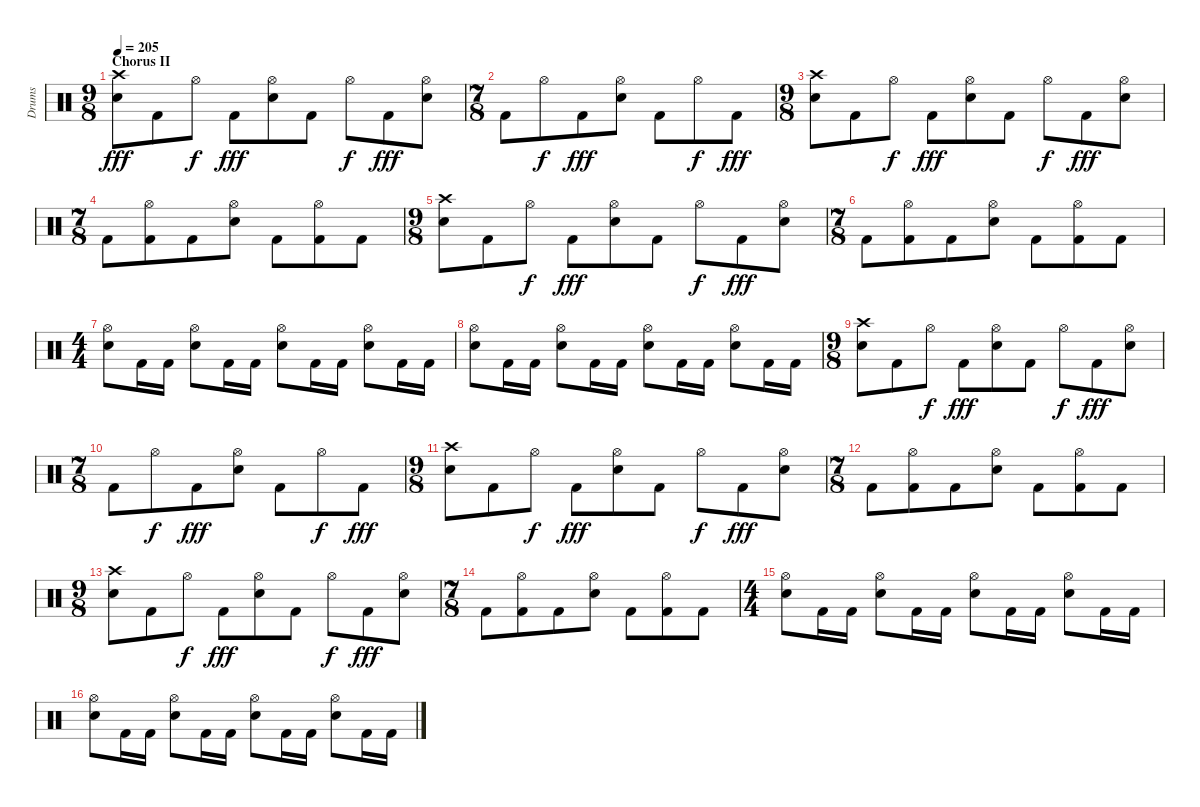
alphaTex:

\track ("Drums" "Drums") {instrument percussion}
\staff {score}
\articulation defaults
\ts (9 8)
\section ("" "Chorus II")
\tempo 205
\clef neutral
\ks c
("Crash high (hit)" "Snare (hit) 2").8{dy fff} "Kick (hit) 2".8 "Hi-Hat (open)".8{dy f} "Kick (hit) 2".8{dy fff} ("Hi-Hat (open)" "Snare (hit) 2").8 "Kick (hit) 2".8 "Hi-Hat (open)".8{dy f} "Kick (hit) 2".8{dy fff} ("Hi-Hat (open)" "Snare (hit) 2").8 |
\ts (7 8)
"Kick (hit) 2".8 "Hi-Hat (open)".8{dy f} "Kick (hit) 2".8{dy fff} ("Hi-Hat (open)" "Snare (hit) 2").8 "Kick (hit) 2".8 "Hi-Hat (open)".8{dy f} "Kick (hit) 2".8{dy fff} |
\ts (9 8)
("Crash high (hit)" "Snare (hit) 2").8 "Kick (hit) 2".8 "Hi-Hat (open)".8{dy f} "Kick (hit) 2".8{dy fff} ("Hi-Hat (open)" "Snare (hit) 2").8 "Kick (hit) 2".8 "Hi-Hat (open)".8{dy f} "Kick (hit) 2".8{dy fff} ("Hi-Hat (open)" "Snare (hit) 2").8 |
\ts (7 8)
"Kick (hit) 2".8 ("Hi-Hat (open)" "Kick (hit) 2").8 "Kick (hit) 2".8 ("Hi-Hat (open)" "Snare (hit) 2").8 "Kick (hit) 2".8 ("Hi-Hat (open)" "Kick (hit) 2").8 "Kick (hit) 2".8 |
\ts (9 8)
("Crash high (hit)" "Snare (hit) 2").8 "Kick (hit) 2".8 "Hi-Hat (open)".8{dy f} "Kick (hit) 2".8{dy fff} ("Hi-Hat (open)" "Snare (hit) 2").8 "Kick (hit) 2".8 "Hi-Hat (open)".8{dy f} "Kick (hit) 2".8{dy fff} ("Hi-Hat (open)" "Snare (hit) 2").8 |
\ts (7 8)
"Kick (hit) 2".8 ("Hi-Hat (open)" "Kick (hit) 2").8 "Kick (hit) 2".8 ("Hi-Hat (open)" "Snare (hit) 2").8 "Kick (hit) 2".8 ("Hi-Hat (open)" "Kick (hit) 2").8 "Kick (hit) 2".8 |
\ts (4 4)
("Hi-Hat (open)" "Snare (hit) 2").8 "Kick (hit) 2".16 "Kick (hit) 2".16 ("Hi-Hat (open)" "Snare (hit) 2").8 "Kick (hit) 2".16 "Kick (hit) 2".16 ("Hi-Hat (open)" "Snare (hit) 2").8 "Kick (hit) 2".16 "Kick (hit) 2".16 ("Hi-Hat (open)" "Snare (hit) 2").8 "Kick (hit) 2".16 "Kick (hit) 2".16 |
("Hi-Hat (open)" "Snare (hit) 2").8 "Kick (hit) 2".16 "Kick (hit) 2".16 ("Hi-Hat (open)" "Snare (hit) 2").8 "Kick (hit) 2".16 "Kick (hit) 2".16 ("Hi-Hat (open)" "Snare (hit) 2").8 "Kick (hit) 2".16 "Kick (hit) 2".16 ("Hi-Hat (open)" "Snare (hit) 2").8 "Kick (hit) 2".16 "Kick (hit) 2".16 |
\ts (9 8)
("Crash high (hit)" "Snare (hit) 2").8 "Kick (hit) 2".8 "Hi-Hat (open)".8{dy f} "Kick (hit) 2".8{dy fff} ("Hi-Hat (open)" "Snare (hit) 2").8 "Kick (hit) 2".8 "Hi-Hat (open)".8{dy f} "Kick (hit) 2".8{dy fff} ("Hi-Hat (open)" "Snare (hit) 2").8 |
\ts (7 8)
"Kick (hit) 2".8 "Hi-Hat (open)".8{dy f} "Kick (hit) 2".8{dy fff} ("Hi-Hat (open)" "Snare (hit) 2").8 "Kick (hit) 2".8 "Hi-Hat (open)".8{dy f} "Kick (hit) 2".8{dy fff} |
\ts (9 8)
("Crash high (hit)" "Snare (hit) 2").8 "Kick (hit) 2".8 "Hi-Hat (open)".8{dy f} "Kick (hit) 2".8{dy fff} ("Hi-Hat (open)" "Snare (hit) 2").8 "Kick (hit) 2".8 "Hi-Hat (open)".8{dy f} "Kick (hit) 2".8{dy fff} ("Hi-Hat (open)" "Snare (hit) 2").8 |
\ts (7 8)
"Kick (hit) 2".8 ("Hi-Hat (open)" "Kick (hit) 2").8 "Kick (hit) 2".8 ("Hi-Hat (open)" "Snare (hit) 2").8 "Kick (hit) 2".8 ("Hi-Hat (open)" "Kick (hit) 2").8 "Kick (hit) 2".8 |
\ts (9 8)
("Crash high (hit)" "Snare (hit) 2").8 "Kick (hit) 2".8 "Hi-Hat (open)".8{dy f} "Kick (hit) 2".8{dy fff} ("Hi-Hat (open)" "Snare (hit) 2").8 "Kick (hit) 2".8 "Hi-Hat (open)".8{dy f} "Kick (hit) 2".8{dy fff} ("Hi-Hat (open)" "Snare (hit) 2").8 |
\ts (7 8)
"Kick (hit) 2".8 ("Hi-Hat (open)" "Kick (hit) 2").8 "Kick (hit) 2".8 ("Hi-Hat (open)" "Snare (hit) 2").8 "Kick (hit) 2".8 ("Hi-Hat (open)" "Kick (hit) 2").8 "Kick (hit) 2".8 |
\ts (4 4)
("Hi-Hat (open)" "Snare (hit) 2").8 "Kick (hit) 2".16 "Kick (hit) 2".16 ("Hi-Hat (open)" "Snare (hit) 2").8 "Kick (hit) 2".16 "Kick (hit) 2".16 ("Hi-Hat (open)" "Snare (hit) 2").8 "Kick (hit) 2".16 "Kick (hit) 2".16 ("Hi-Hat (open)" "Snare (hit) 2").8 "Kick (hit) 2".16 "Kick (hit) 2".16 |
("Hi-Hat (open)" "Snare (hit) 2").8 "Kick (hit) 2".16 "Kick (hit) 2".16 ("Hi-Hat (open)" "Snare (hit) 2").8 "Kick (hit) 2".16 "Kick (hit) 2".16 ("Hi-Hat (open)" "Snare (hit) 2").8 "Kick (hit) 2".16 "Kick (hit) 2".16 ("Hi-Hat (open)" "Snare (hit) 2").8 "Kick (hit) 2".16 "Kick (hit) 2".16
